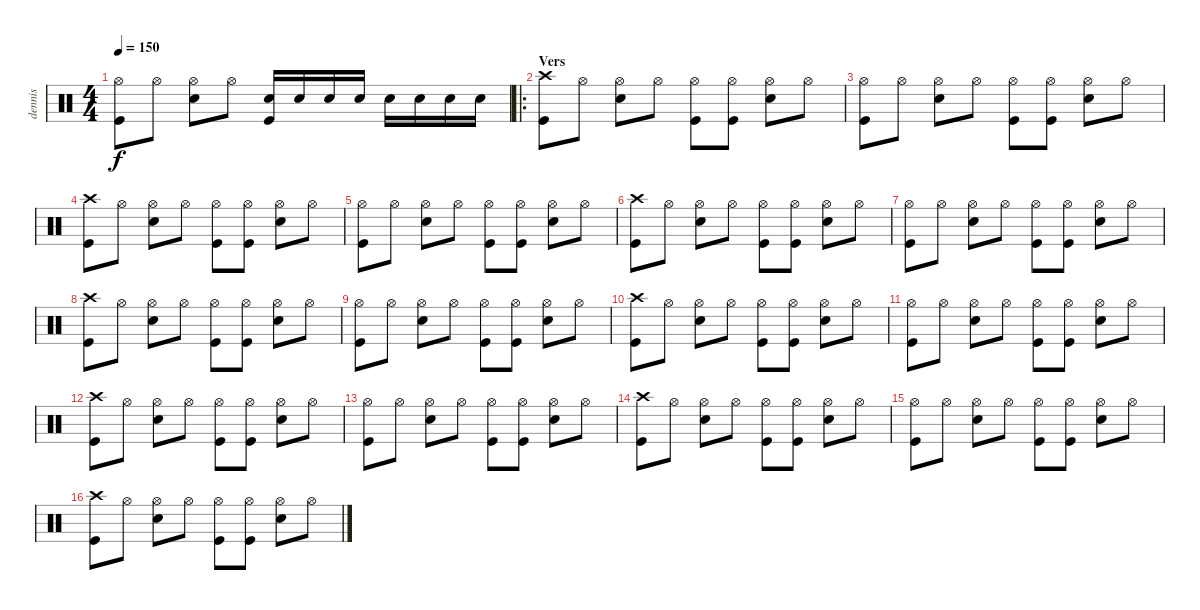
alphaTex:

\track ("dennis" "dennis") {instrument percussion}
\staff {score}
\articulation defaults
\ts (4 4)
\tempo 150
\clef neutral
\ks c
("Hi-Hat (open)" "Kick (hit)").8{dy f} "Hi-Hat (open)".8 ("Hi-Hat (open)" "Electric Snare (hit)").8 "Hi-Hat (open)".8 ("Electric Snare (hit)" "Kick (hit)").16 "Electric Snare (hit)".16 "Electric Snare (hit)".16 "Electric Snare (hit)".16 "Electric Snare (hit)".16 "Electric Snare (hit)".16 "Electric Snare (hit)".16 "Electric Snare (hit)".16 |
\ro
\section ("" "Vers")
("Crash high (hit)" "Kick (hit)").8 "Hi-Hat (open)".8 ("Hi-Hat (open)" "Electric Snare (hit)").8 "Hi-Hat (open)".8 ("Hi-Hat (open)" "Kick (hit)").8 ("Hi-Hat (open)" "Kick (hit)").8 ("Hi-Hat (open)" "Electric Snare (hit)").8 "Hi-Hat (open)".8 |
("Hi-Hat (open)" "Kick (hit)").8 "Hi-Hat (open)".8 ("Hi-Hat (open)" "Electric Snare (hit)").8 "Hi-Hat (open)".8 ("Hi-Hat (open)" "Kick (hit)").8 ("Hi-Hat (open)" "Kick (hit)").8 ("Hi-Hat (open)" "Electric Snare (hit)").8 "Hi-Hat (open)".8 |
("Crash high (hit)" "Kick (hit)").8 "Hi-Hat (open)".8 ("Hi-Hat (open)" "Electric Snare (hit)").8 "Hi-Hat (open)".8 ("Hi-Hat (open)" "Kick (hit)").8 ("Hi-Hat (open)" "Kick (hit)").8 ("Hi-Hat (open)" "Electric Snare (hit)").8 "Hi-Hat (open)".8 |
("Hi-Hat (open)" "Kick (hit)").8 "Hi-Hat (open)".8 ("Hi-Hat (open)" "Electric Snare (hit)").8 "Hi-Hat (open)".8 ("Hi-Hat (open)" "Kick (hit)").8 ("Hi-Hat (open)" "Kick (hit)").8 ("Hi-Hat (open)" "Electric Snare (hit)").8 "Hi-Hat (open)".8 |
("Crash high (hit)" "Kick (hit)").8 "Hi-Hat (open)".8 ("Hi-Hat (open)" "Electric Snare (hit)").8 "Hi-Hat (open)".8 ("Hi-Hat (open)" "Kick (hit)").8 ("Hi-Hat (open)" "Kick (hit)").8 ("Hi-Hat (open)" "Electric Snare (hit)").8 "Hi-Hat (open)".8 |
("Hi-Hat (open)" "Kick (hit)").8 "Hi-Hat (open)".8 ("Hi-Hat (open)" "Electric Snare (hit)").8 "Hi-Hat (open)".8 ("Hi-Hat (open)" "Kick (hit)").8 ("Hi-Hat (open)" "Kick (hit)").8 ("Hi-Hat (open)" "Electric Snare (hit)").8 "Hi-Hat (open)".8 |
("Crash high (hit)" "Kick (hit)").8 "Hi-Hat (open)".8 ("Hi-Hat (open)" "Electric Snare (hit)").8 "Hi-Hat (open)".8 ("Hi-Hat (open)" "Kick (hit)").8 ("Hi-Hat (open)" "Kick (hit)").8 ("Hi-Hat (open)" "Electric Snare (hit)").8 "Hi-Hat (open)".8 |
("Hi-Hat (open)" "Kick (hit)").8 "Hi-Hat (open)".8 ("Hi-Hat (open)" "Electric Snare (hit)").8 "Hi-Hat (open)".8 ("Hi-Hat (open)" "Kick (hit)").8 ("Hi-Hat (open)" "Kick (hit)").8 ("Hi-Hat (open)" "Electric Snare (hit)").8 "Hi-Hat (open)".8 |
("Crash high (hit)" "Kick (hit)").8 "Hi-Hat (open)".8 ("Hi-Hat (open)" "Electric Snare (hit)").8 "Hi-Hat (open)".8 ("Hi-Hat (open)" "Kick (hit)").8 ("Hi-Hat (open)" "Kick (hit)").8 ("Hi-Hat (open)" "Electric Snare (hit)").8 "Hi-Hat (open)".8 |
("Hi-Hat (open)" "Kick (hit)").8 "Hi-Hat (open)".8 ("Hi-Hat (open)" "Electric Snare (hit)").8 "Hi-Hat (open)".8 ("Hi-Hat (open)" "Kick (hit)").8 ("Hi-Hat (open)" "Kick (hit)").8 ("Hi-Hat (open)" "Electric Snare (hit)").8 "Hi-Hat (open)".8 |
("Crash high (hit)" "Kick (hit)").8 "Hi-Hat (open)".8 ("Hi-Hat (open)" "Electric Snare (hit)").8 "Hi-Hat (open)".8 ("Hi-Hat (open)" "Kick (hit)").8 ("Hi-Hat (open)" "Kick (hit)").8 ("Hi-Hat (open)" "Electric Snare (hit)").8 "Hi-Hat (open)".8 |
("Hi-Hat (open)" "Kick (hit)").8 "Hi-Hat (open)".8 ("Hi-Hat (open)" "Electric Snare (hit)").8 "Hi-Hat (open)".8 ("Hi-Hat (open)" "Kick (hit)").8 ("Hi-Hat (open)" "Kick (hit)").8 ("Hi-Hat (open)" "Electric Snare (hit)").8 "Hi-Hat (open)".8 |
("Crash high (hit)" "Kick (hit)").8 "Hi-Hat (open)".8 ("Hi-Hat (open)" "Electric Snare (hit)").8 "Hi-Hat (open)".8 ("Hi-Hat (open)" "Kick (hit)").8 ("Hi-Hat (open)" "Kick (hit)").8 ("Hi-Hat (open)" "Electric Snare (hit)").8 "Hi-Hat (open)".8 |
("Hi-Hat (open)" "Kick (hit)").8 "Hi-Hat (open)".8 ("Hi-Hat (open)" "Electric Snare (hit)").8 "Hi-Hat (open)".8 ("Hi-Hat (open)" "Kick (hit)").8 ("Hi-Hat (open)" "Kick (hit)").8 ("Hi-Hat (open)" "Electric Snare (hit)").8 "Hi-Hat (open)".8 |
("Crash high (hit)" "Kick (hit)").8 "Hi-Hat (open)".8 ("Hi-Hat (open)" "Electric Snare (hit)").8 "Hi-Hat (open)".8 ("Hi-Hat (open)" "Kick (hit)").8 ("Hi-Hat (open)" "Kick (hit)").8 ("Hi-Hat (open)" "Electric Snare (hit)").8 "Hi-Hat (open)".8
